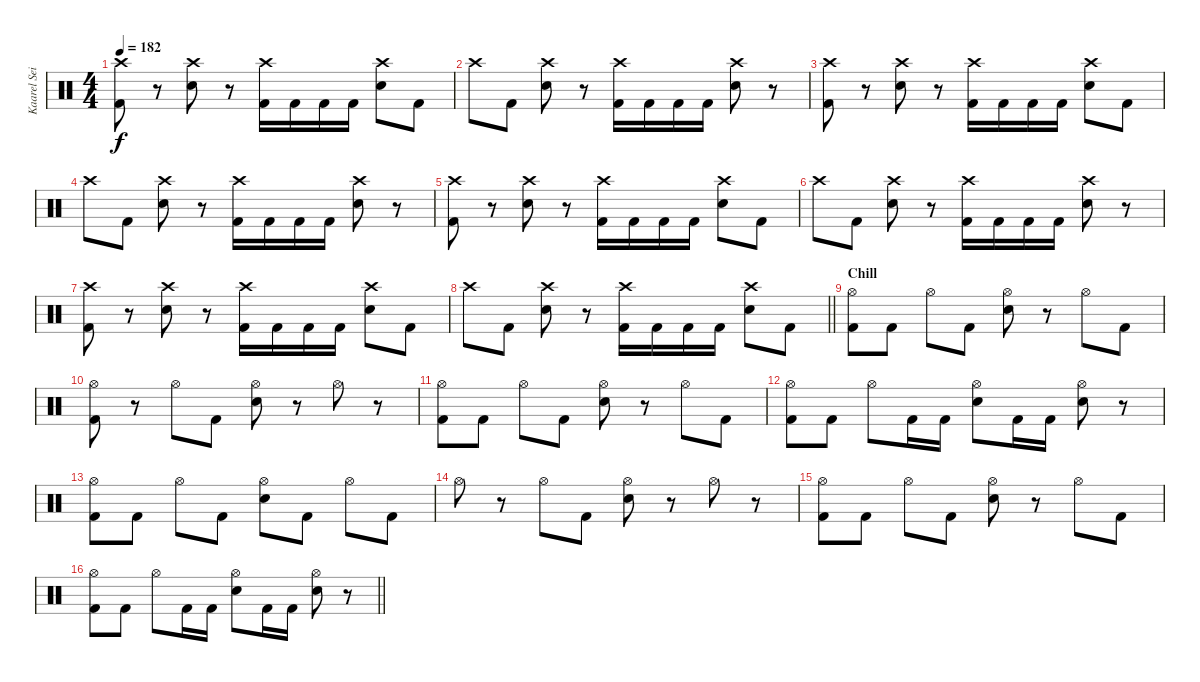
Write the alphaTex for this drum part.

\track ("Kaarel Sein" "Kaarel Sei") {instrument percussion}
\staff {score}
\articulation defaults
\ts (4 4)
\tempo 182
\clef neutral
\ks c
("Crash high (hit)" "Kick (hit) 2").8{dy f} r.8 ("Crash high (hit)" "Electric Snare (hit)").8 r.8 ("Crash high (hit)" "Kick (hit) 2").16 "Kick (hit) 2".16 "Kick (hit) 2".16 "Kick (hit) 2".16 ("Crash high (hit)" "Electric Snare (hit)").8 "Kick (hit) 2".8 |
"Crash high (hit)".8 "Kick (hit) 2".8 ("Crash high (hit)" "Electric Snare (hit)").8 r.8 ("Crash high (hit)" "Kick (hit) 2").16 "Kick (hit) 2".16 "Kick (hit) 2".16 "Kick (hit) 2".16 ("Crash high (hit)" "Electric Snare (hit)").8 r.8 |
("Crash high (hit)" "Kick (hit) 2").8 r.8 ("Crash high (hit)" "Electric Snare (hit)").8 r.8 ("Crash high (hit)" "Kick (hit) 2").16 "Kick (hit) 2".16 "Kick (hit) 2".16 "Kick (hit) 2".16 ("Crash high (hit)" "Electric Snare (hit)").8 "Kick (hit) 2".8 |
"Crash high (hit)".8 "Kick (hit) 2".8 ("Crash high (hit)" "Electric Snare (hit)").8 r.8 ("Crash high (hit)" "Kick (hit) 2").16 "Kick (hit) 2".16 "Kick (hit) 2".16 "Kick (hit) 2".16 ("Crash high (hit)" "Electric Snare (hit)").8 r.8 |
("Crash high (hit)" "Kick (hit) 2").8 r.8 ("Crash high (hit)" "Electric Snare (hit)").8 r.8 ("Crash high (hit)" "Kick (hit) 2").16 "Kick (hit) 2".16 "Kick (hit) 2".16 "Kick (hit) 2".16 ("Crash high (hit)" "Electric Snare (hit)").8 "Kick (hit) 2".8 |
"Crash high (hit)".8 "Kick (hit) 2".8 ("Crash high (hit)" "Electric Snare (hit)").8 r.8 ("Crash high (hit)" "Kick (hit) 2").16 "Kick (hit) 2".16 "Kick (hit) 2".16 "Kick (hit) 2".16 ("Crash high (hit)" "Electric Snare (hit)").8 r.8 |
("Crash high (hit)" "Kick (hit) 2").8 r.8 ("Crash high (hit)" "Electric Snare (hit)").8 r.8 ("Crash high (hit)" "Kick (hit) 2").16 "Kick (hit) 2".16 "Kick (hit) 2".16 "Kick (hit) 2".16 ("Crash high (hit)" "Electric Snare (hit)").8 "Kick (hit) 2".8 |
\barLineRight lightlight "Crash high (hit)".8 "Kick (hit) 2".8
("Crash high (hit)" "Electric Snare (hit)").8 r.8 ("Crash high (hit)" "Kick (hit) 2").16 "Kick (hit) 2".16 "Kick (hit) 2".16 "Kick (hit) 2".16 ("Crash high (hit)" "Electric Snare (hit)").8 "Kick (hit) 2".8 |
\section ("" "Chill")
("Hi-Hat (open)" "Kick (hit) 2").8 "Kick (hit) 2".8 "Hi-Hat (open)".8 "Kick (hit) 2".8 ("Hi-Hat (open)" "Electric Snare (hit)").8 r.8 "Hi-Hat (open)".8 "Kick (hit) 2".8 |
("Hi-Hat (open)" "Kick (hit) 2").8 r.8 "Hi-Hat (open)".8 "Kick (hit) 2".8 ("Hi-Hat (open)" "Electric Snare (hit)").8 r.8 "Hi-Hat (open)".8 r.8 |
("Hi-Hat (open)" "Kick (hit) 2").8 "Kick (hit) 2".8 "Hi-Hat (open)".8 "Kick (hit) 2".8 ("Hi-Hat (open)" "Electric Snare (hit)").8 r.8 "Hi-Hat (open)".8 "Kick (hit) 2".8 |
("Hi-Hat (open)" "Kick (hit) 2").8 "Kick (hit) 2".8 "Hi-Hat (open)".8 "Kick (hit) 2".16 "Kick (hit) 2".16 ("Hi-Hat (open)" "Electric Snare (hit)").8 "Kick (hit) 2".16 "Kick (hit) 2".16 ("Hi-Hat (open)" "Electric Snare (hit)").8 r.8 |
("Hi-Hat (open)" "Kick (hit) 2").8 "Kick (hit) 2".8 "Hi-Hat (open)".8 "Kick (hit) 2".8 ("Hi-Hat (open)" "Electric Snare (hit)").8 "Kick (hit) 2".8 "Hi-Hat (open)".8 "Kick (hit) 2".8 |
"Hi-Hat (open)".8 r.8 "Hi-Hat (open)".8 "Kick (hit) 2".8 ("Hi-Hat (open)" "Electric Snare (hit)").8 r.8 "Hi-Hat (open)".8 r.8 |
("Hi-Hat (open)" "Kick (hit) 2").8 "Kick (hit) 2".8 "Hi-Hat (open)".8 "Kick (hit) 2".8 ("Hi-Hat (open)" "Electric Snare (hit)").8 r.8 "Hi-Hat (open)".8 "Kick (hit) 2".8 |
\barLineRight lightlight
("Hi-Hat (open)" "Kick (hit) 2").8 "Kick (hit) 2".8 "Hi-Hat (open)".8 "Kick (hit) 2".16 "Kick (hit) 2".16 ("Hi-Hat (open)" "Electric Snare (hit)").8 "Kick (hit) 2".16 "Kick (hit) 2".16 ("Hi-Hat (open)" "Electric Snare (hit)").8 r.8
